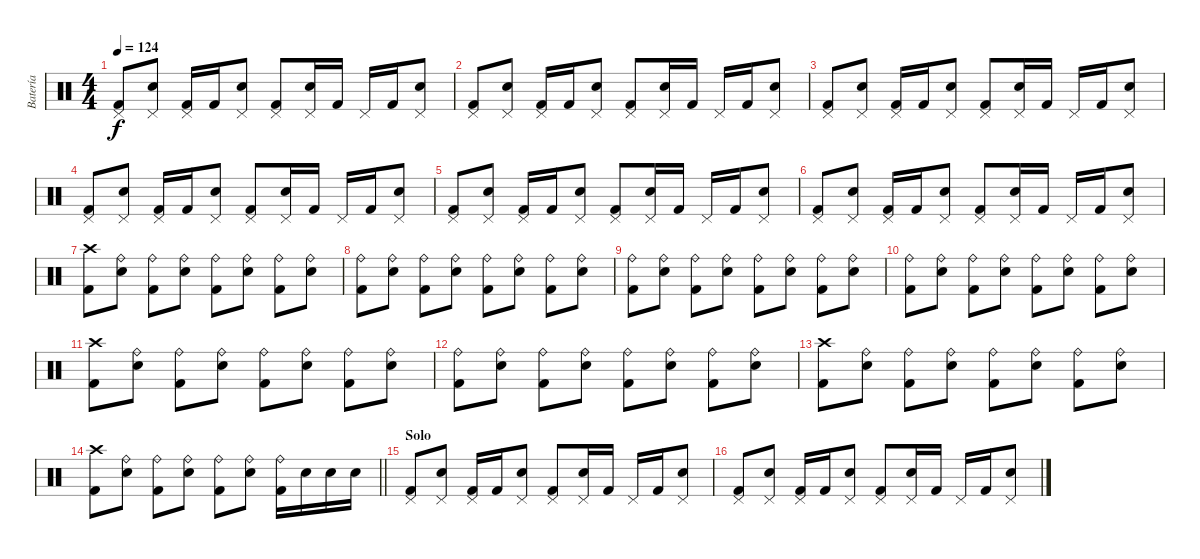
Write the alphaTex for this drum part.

\track ("Batería" "Batería") {instrument percussion}
\staff {score}
\articulation defaults
\ts (4 4)
\tempo 124
\clef neutral
\ks c
("Pedal Hi-Hat (hit)" "Kick (hit) 2").8{dy f} ("Pedal Hi-Hat (hit)" "Snare (hit) 2").8 ("Pedal Hi-Hat (hit)" "Kick (hit) 2").16 "Kick (hit) 2".16 ("Pedal Hi-Hat (hit)" "Snare (hit) 2").8 ("Pedal Hi-Hat (hit)" "Kick (hit) 2").8 ("Pedal Hi-Hat (hit)" "Snare (hit) 2").16 "Kick (hit) 2".16 "Pedal Hi-Hat (hit)".16 "Kick (hit) 2".16 ("Pedal Hi-Hat (hit)" "Snare (hit) 2").8 |
("Pedal Hi-Hat (hit)" "Kick (hit) 2").8 ("Pedal Hi-Hat (hit)" "Snare (hit) 2").8 ("Pedal Hi-Hat (hit)" "Kick (hit) 2").16 "Kick (hit) 2".16 ("Pedal Hi-Hat (hit)" "Snare (hit) 2").8 ("Pedal Hi-Hat (hit)" "Kick (hit) 2").8 ("Pedal Hi-Hat (hit)" "Snare (hit) 2").16 "Kick (hit) 2".16 "Pedal Hi-Hat (hit)".16 "Kick (hit) 2".16 ("Pedal Hi-Hat (hit)" "Snare (hit) 2").8 |
("Pedal Hi-Hat (hit)" "Kick (hit) 2").8 ("Pedal Hi-Hat (hit)" "Snare (hit) 2").8 ("Pedal Hi-Hat (hit)" "Kick (hit) 2").16 "Kick (hit) 2".16 ("Pedal Hi-Hat (hit)" "Snare (hit) 2").8 ("Pedal Hi-Hat (hit)" "Kick (hit) 2").8 ("Pedal Hi-Hat (hit)" "Snare (hit) 2").16 "Kick (hit) 2".16 "Pedal Hi-Hat (hit)".16 "Kick (hit) 2".16 ("Pedal Hi-Hat (hit)" "Snare (hit) 2").8 |
("Pedal Hi-Hat (hit)" "Kick (hit) 2").8 ("Pedal Hi-Hat (hit)" "Snare (hit) 2").8 ("Pedal Hi-Hat (hit)" "Kick (hit) 2").16 "Kick (hit) 2".16 ("Pedal Hi-Hat (hit)" "Snare (hit) 2").8 ("Pedal Hi-Hat (hit)" "Kick (hit) 2").8 ("Pedal Hi-Hat (hit)" "Snare (hit) 2").16 "Kick (hit) 2".16 "Pedal Hi-Hat (hit)".16 "Kick (hit) 2".16 ("Pedal Hi-Hat (hit)" "Snare (hit) 2").8 |
("Pedal Hi-Hat (hit)" "Kick (hit) 2").8 ("Pedal Hi-Hat (hit)" "Snare (hit) 2").8 ("Pedal Hi-Hat (hit)" "Kick (hit) 2").16 "Kick (hit) 2".16 ("Pedal Hi-Hat (hit)" "Snare (hit) 2").8 ("Pedal Hi-Hat (hit)" "Kick (hit) 2").8 ("Pedal Hi-Hat (hit)" "Snare (hit) 2").16 "Kick (hit) 2".16 "Pedal Hi-Hat (hit)".16 "Kick (hit) 2".16 ("Pedal Hi-Hat (hit)" "Snare (hit) 2").8 |
("Pedal Hi-Hat (hit)" "Kick (hit) 2").8 ("Pedal Hi-Hat (hit)" "Snare (hit) 2").8 ("Pedal Hi-Hat (hit)" "Kick (hit) 2").16 "Kick (hit) 2".16 ("Pedal Hi-Hat (hit)" "Snare (hit) 2").8 ("Pedal Hi-Hat (hit)" "Kick (hit) 2").8 ("Pedal Hi-Hat (hit)" "Snare (hit) 2").16 "Kick (hit) 2".16 "Pedal Hi-Hat (hit)".16 "Kick (hit) 2".16 ("Pedal Hi-Hat (hit)" "Snare (hit) 2").8 |
("Crash high (hit)" "Kick (hit) 2").8 ("Ride (bell)" "Snare (hit) 2").8 ("Ride (bell)" "Kick (hit) 2").8 ("Ride (bell)" "Snare (hit) 2").8 ("Ride (bell)" "Kick (hit) 2").8 ("Ride (bell)" "Snare (hit) 2").8 ("Ride (bell)" "Kick (hit) 2").8 ("Ride (bell)" "Snare (hit) 2").8 |
("Ride (bell)" "Kick (hit) 2").8 ("Ride (bell)" "Snare (hit) 2").8 ("Ride (bell)" "Kick (hit) 2").8 ("Ride (bell)" "Snare (hit) 2").8 ("Ride (bell)" "Kick (hit) 2").8 ("Ride (bell)" "Snare (hit) 2").8 ("Ride (bell)" "Kick (hit) 2").8 ("Ride (bell)" "Snare (hit) 2").8 |
("Ride (bell)" "Kick (hit) 2").8 ("Ride (bell)" "Snare (hit) 2").8 ("Ride (bell)" "Kick (hit) 2").8 ("Ride (bell)" "Snare (hit) 2").8 ("Ride (bell)" "Kick (hit) 2").8 ("Ride (bell)" "Snare (hit) 2").8 ("Ride (bell)" "Kick (hit) 2").8 ("Ride (bell)" "Snare (hit) 2").8 |
("Ride (bell)" "Kick (hit) 2").8 ("Ride (bell)" "Snare (hit) 2").8 ("Ride (bell)" "Kick (hit) 2").8 ("Ride (bell)" "Snare (hit) 2").8 ("Ride (bell)" "Kick (hit) 2").8 ("Ride (bell)" "Snare (hit) 2").8 ("Ride (bell)" "Kick (hit) 2").8 ("Ride (bell)" "Snare (hit) 2").8 |
("Crash high (hit)" "Kick (hit) 2").8 ("Ride (bell)" "Snare (hit) 2").8 ("Ride (bell)" "Kick (hit) 2").8 ("Ride (bell)" "Snare (hit) 2").8 ("Ride (bell)" "Kick (hit) 2").8 ("Ride (bell)" "Snare (hit) 2").8 ("Ride (bell)" "Kick (hit) 2").8 ("Ride (bell)" "Snare (hit) 2").8 |
("Ride (bell)" "Kick (hit) 2").8 ("Ride (bell)" "Snare (hit) 2").8 ("Ride (bell)" "Kick (hit) 2").8 ("Ride (bell)" "Snare (hit) 2").8 ("Ride (bell)" "Kick (hit) 2").8 ("Ride (bell)" "Snare (hit) 2").8 ("Ride (bell)" "Kick (hit) 2").8 ("Ride (bell)" "Snare (hit) 2").8 |
("Crash high (hit)" "Kick (hit) 2").8 ("Ride (bell)" "Snare (hit) 2").8 ("Ride (bell)" "Kick (hit) 2").8 ("Ride (bell)" "Snare (hit) 2").8 ("Ride (bell)" "Kick (hit) 2").8 ("Ride (bell)" "Snare (hit) 2").8 ("Ride (bell)" "Kick (hit) 2").8 ("Ride (bell)" "Snare (hit) 2").8 |
\barLineRight lightlight
("Crash high (hit)" "Kick (hit) 2").8 ("Ride (bell)" "Snare (hit) 2").8 ("Ride (bell)" "Kick (hit) 2").8 ("Ride (bell)" "Snare (hit) 2").8 ("Ride (bell)" "Kick (hit) 2").8 ("Ride (bell)" "Snare (hit) 2").8 ("Ride (bell)" "Kick (hit) 2").16 "Snare (hit) 2".16 "Snare (hit) 2".16 "Snare (hit) 2".16 |
\section ("" "Solo")
("Pedal Hi-Hat (hit)" "Kick (hit) 2").8 ("Pedal Hi-Hat (hit)" "Snare (hit) 2").8 ("Pedal Hi-Hat (hit)" "Kick (hit) 2").16 "Kick (hit) 2".16 ("Pedal Hi-Hat (hit)" "Snare (hit) 2").8 ("Pedal Hi-Hat (hit)" "Kick (hit) 2").8 ("Pedal Hi-Hat (hit)" "Snare (hit) 2").16 "Kick (hit) 2".16 "Pedal Hi-Hat (hit)".16 "Kick (hit) 2".16 ("Pedal Hi-Hat (hit)" "Snare (hit) 2").8 |
("Pedal Hi-Hat (hit)" "Kick (hit) 2").8 ("Pedal Hi-Hat (hit)" "Snare (hit) 2").8 ("Pedal Hi-Hat (hit)" "Kick (hit) 2").16 "Kick (hit) 2".16 ("Pedal Hi-Hat (hit)" "Snare (hit) 2").8 ("Pedal Hi-Hat (hit)" "Kick (hit) 2").8 ("Pedal Hi-Hat (hit)" "Snare (hit) 2").16 "Kick (hit) 2".16 "Pedal Hi-Hat (hit)".16 "Kick (hit) 2".16 ("Pedal Hi-Hat (hit)" "Snare (hit) 2").8
